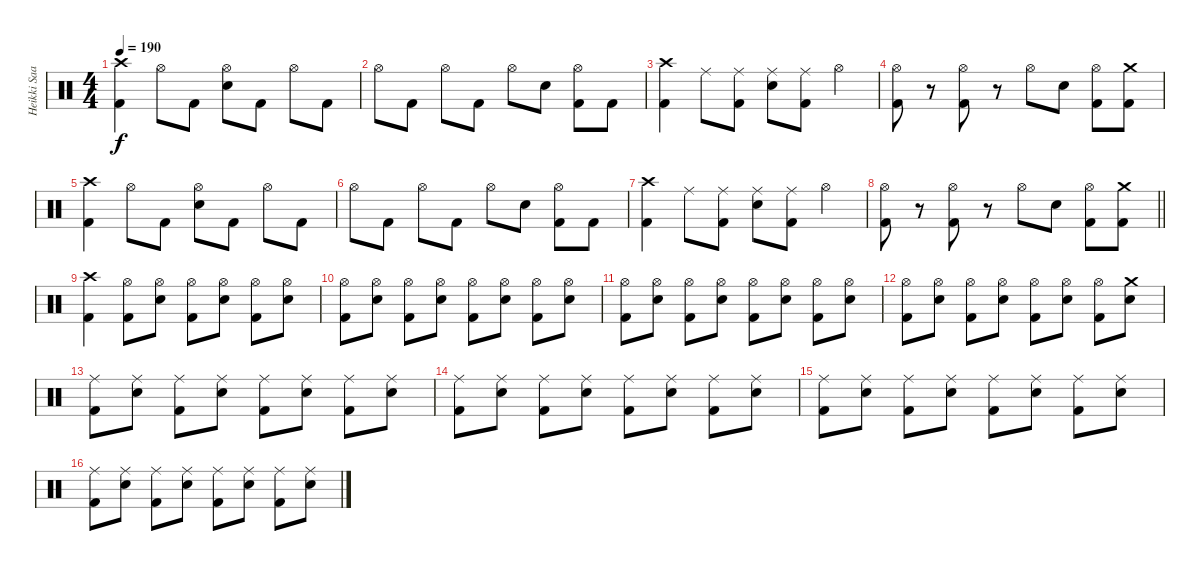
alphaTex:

\track ("Heikki Saari" "Heikki Saa") {instrument percussion}
\staff {score}
\articulation defaults
\ts (4 4)
\tempo 190
\clef neutral
\ks c
("Crash high (hit)" "Kick (hit) 2").4{dy f} "Hi-Hat (open)".8 "Kick (hit) 2".8 ("Hi-Hat (open)" "Snare (hit) 2").8 "Kick (hit) 2".8 "Hi-Hat (open)".8 "Kick (hit) 2".8 |
"Hi-Hat (open)".8 "Kick (hit) 2".8 "Hi-Hat (open)".8 "Kick (hit) 2".8 "Hi-Hat (open)".8 "Snare (hit) 2".8 ("Hi-Hat (open)" "Kick (hit) 2").8 "Kick (hit) 2".8 |
("Crash high (hit)" "Kick (hit) 2").4 "Ride (middle)".8 ("Ride (middle)" "Kick (hit) 2").8 ("Ride (middle)" "Snare (hit) 2").8 ("Ride (middle)" "Kick (hit) 2").8 "Hi-Hat (open)".4 |
("Hi-Hat (open)" "Kick (hit) 2").8 r.8 ("Hi-Hat (open)" "Kick (hit) 2").8 r.8 "Hi-Hat (open)".8 "Snare (hit) 2".8 ("Hi-Hat (open)" "Kick (hit) 2").8 ("Crash medium (hit)" "Kick (hit) 2").8 |
("Crash high (hit)" "Kick (hit) 2").4 "Hi-Hat (open)".8 "Kick (hit) 2".8 ("Hi-Hat (open)" "Snare (hit) 2").8 "Kick (hit) 2".8 "Hi-Hat (open)".8 "Kick (hit) 2".8 |
"Hi-Hat (open)".8 "Kick (hit) 2".8 "Hi-Hat (open)".8 "Kick (hit) 2".8 "Hi-Hat (open)".8 "Snare (hit) 2".8 ("Hi-Hat (open)" "Kick (hit) 2").8 "Kick (hit) 2".8 |
("Crash high (hit)" "Kick (hit) 2").4 "Ride (middle)".8 ("Ride (middle)" "Kick (hit) 2").8 ("Ride (middle)" "Snare (hit) 2").8 ("Ride (middle)" "Kick (hit) 2").8 "Hi-Hat (open)".4 |
\barLineRight lightlight
("Hi-Hat (open)" "Kick (hit) 2").8 r.8 ("Hi-Hat (open)" "Kick (hit) 2").8 r.8 "Hi-Hat (open)".8 "Snare (hit) 2".8 ("Hi-Hat (open)" "Kick (hit) 2").8 ("Crash medium (hit)" "Kick (hit) 2").8 |
("Crash high (hit)" "Kick (hit) 2").4 ("Hi-Hat (open)" "Kick (hit) 2").8 ("Hi-Hat (open)" "Snare (hit) 2").8 ("Hi-Hat (open)" "Kick (hit) 2").8 ("Hi-Hat (open)" "Snare (hit) 2").8 ("Hi-Hat (open)" "Kick (hit) 2").8 ("Hi-Hat (open)" "Snare (hit) 2").8 |
("Hi-Hat (open)" "Kick (hit) 2").8 ("Hi-Hat (open)" "Snare (hit) 2").8 ("Hi-Hat (open)" "Kick (hit) 2").8 ("Hi-Hat (open)" "Snare (hit) 2").8 ("Hi-Hat (open)" "Kick (hit) 2").8 ("Hi-Hat (open)" "Snare (hit) 2").8 ("Hi-Hat (open)" "Kick (hit) 2").8 ("Hi-Hat (open)" "Snare (hit) 2").8 |
("Hi-Hat (open)" "Kick (hit) 2").8 ("Hi-Hat (open)" "Snare (hit) 2").8 ("Hi-Hat (open)" "Kick (hit) 2").8 ("Hi-Hat (open)" "Snare (hit) 2").8 ("Hi-Hat (open)" "Kick (hit) 2").8 ("Hi-Hat (open)" "Snare (hit) 2").8 ("Hi-Hat (open)" "Kick (hit) 2").8 ("Hi-Hat (open)" "Snare (hit) 2").8 |
("Hi-Hat (open)" "Kick (hit) 2").8 ("Hi-Hat (open)" "Snare (hit) 2").8 ("Hi-Hat (open)" "Kick (hit) 2").8 ("Hi-Hat (open)" "Snare (hit) 2").8 ("Hi-Hat (open)" "Kick (hit) 2").8 ("Hi-Hat (open)" "Snare (hit) 2").8 ("Hi-Hat (open)" "Kick (hit) 2").8 ("Crash medium (hit)" "Snare (hit) 2").8 |
("Ride (middle)" "Kick (hit) 2").8 ("Ride (middle)" "Snare (hit) 2").8 ("Ride (middle)" "Kick (hit) 2").8 ("Ride (middle)" "Snare (hit) 2").8 ("Ride (middle)" "Kick (hit) 2").8 ("Ride (middle)" "Snare (hit) 2").8 ("Ride (middle)" "Kick (hit) 2").8 ("Ride (middle)" "Snare (hit) 2").8 |
("Ride (middle)" "Kick (hit) 2").8 ("Ride (middle)" "Snare (hit) 2").8 ("Ride (middle)" "Kick (hit) 2").8 ("Ride (middle)" "Snare (hit) 2").8 ("Ride (middle)" "Kick (hit) 2").8 ("Ride (middle)" "Snare (hit) 2").8 ("Ride (middle)" "Kick (hit) 2").8 ("Ride (middle)" "Snare (hit) 2").8 |
("Ride (middle)" "Kick (hit) 2").8 ("Ride (middle)" "Snare (hit) 2").8 ("Ride (middle)" "Kick (hit) 2").8 ("Ride (middle)" "Snare (hit) 2").8 ("Ride (middle)" "Kick (hit) 2").8 ("Ride (middle)" "Snare (hit) 2").8 ("Ride (middle)" "Kick (hit) 2").8 ("Ride (middle)" "Snare (hit) 2").8 |
("Ride (middle)" "Kick (hit) 2").8 ("Ride (middle)" "Snare (hit) 2").8 ("Ride (middle)" "Kick (hit) 2").8 ("Ride (middle)" "Snare (hit) 2").8 ("Ride (middle)" "Kick (hit) 2").8 ("Ride (middle)" "Snare (hit) 2").8 ("Ride (middle)" "Kick (hit) 2").8 ("Ride (middle)" "Snare (hit) 2").8
